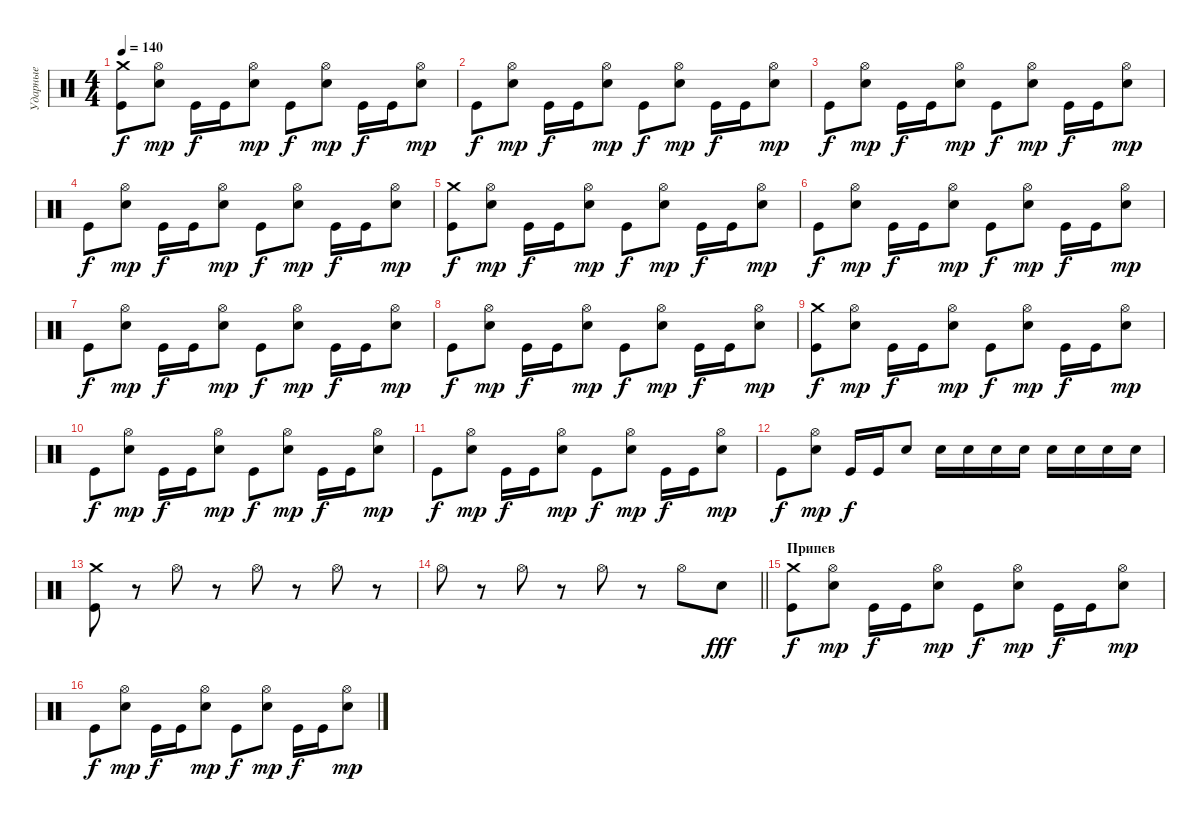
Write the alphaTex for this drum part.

\track ("Ударные" "Ударные") {instrument percussion}
\staff {score}
\articulation defaults
\ts (4 4)
\tempo 140
\clef neutral
\ks c
("Crash medium (hit)" "Kick (hit)").8{dy f} ("Hi-Hat (open)" "Electric Snare (hit)").8{dy mp} "Kick (hit)".16{dy f} "Kick (hit)".16 ("Hi-Hat (open)" "Electric Snare (hit)").8{dy mp} "Kick (hit)".8{dy f} ("Hi-Hat (open)" "Electric Snare (hit)").8{dy mp} "Kick (hit)".16{dy f} "Kick (hit)".16 ("Hi-Hat (open)" "Electric Snare (hit)").8{dy mp} |
"Kick (hit)".8{dy f} ("Hi-Hat (open)" "Electric Snare (hit)").8{dy mp} "Kick (hit)".16{dy f} "Kick (hit)".16 ("Hi-Hat (open)" "Electric Snare (hit)").8{dy mp} "Kick (hit)".8{dy f} ("Hi-Hat (open)" "Electric Snare (hit)").8{dy mp} "Kick (hit)".16{dy f} "Kick (hit)".16 ("Hi-Hat (open)" "Electric Snare (hit)").8{dy mp} |
"Kick (hit)".8{dy f} ("Hi-Hat (open)" "Electric Snare (hit)").8{dy mp} "Kick (hit)".16{dy f} "Kick (hit)".16 ("Hi-Hat (open)" "Electric Snare (hit)").8{dy mp} "Kick (hit)".8{dy f} ("Hi-Hat (open)" "Electric Snare (hit)").8{dy mp} "Kick (hit)".16{dy f} "Kick (hit)".16 ("Hi-Hat (open)" "Electric Snare (hit)").8{dy mp} |
"Kick (hit)".8{dy f} ("Hi-Hat (open)" "Electric Snare (hit)").8{dy mp} "Kick (hit)".16{dy f} "Kick (hit)".16 ("Hi-Hat (open)" "Electric Snare (hit)").8{dy mp} "Kick (hit)".8{dy f} ("Hi-Hat (open)" "Electric Snare (hit)").8{dy mp} "Kick (hit)".16{dy f} "Kick (hit)".16 ("Hi-Hat (open)" "Electric Snare (hit)").8{dy mp} |
("Crash medium (hit)" "Kick (hit)").8{dy f} ("Hi-Hat (open)" "Electric Snare (hit)").8{dy mp} "Kick (hit)".16{dy f} "Kick (hit)".16 ("Hi-Hat (open)" "Electric Snare (hit)").8{dy mp} "Kick (hit)".8{dy f} ("Hi-Hat (open)" "Electric Snare (hit)").8{dy mp} "Kick (hit)".16{dy f} "Kick (hit)".16 ("Hi-Hat (open)" "Electric Snare (hit)").8{dy mp} |
"Kick (hit)".8{dy f} ("Hi-Hat (open)" "Electric Snare (hit)").8{dy mp} "Kick (hit)".16{dy f} "Kick (hit)".16 ("Hi-Hat (open)" "Electric Snare (hit)").8{dy mp} "Kick (hit)".8{dy f} ("Hi-Hat (open)" "Electric Snare (hit)").8{dy mp} "Kick (hit)".16{dy f} "Kick (hit)".16 ("Hi-Hat (open)" "Electric Snare (hit)").8{dy mp} |
"Kick (hit)".8{dy f} ("Hi-Hat (open)" "Electric Snare (hit)").8{dy mp} "Kick (hit)".16{dy f} "Kick (hit)".16 ("Hi-Hat (open)" "Electric Snare (hit)").8{dy mp} "Kick (hit)".8{dy f} ("Hi-Hat (open)" "Electric Snare (hit)").8{dy mp} "Kick (hit)".16{dy f} "Kick (hit)".16 ("Hi-Hat (open)" "Electric Snare (hit)").8{dy mp} |
"Kick (hit)".8{dy f} ("Hi-Hat (open)" "Electric Snare (hit)").8{dy mp} "Kick (hit)".16{dy f} "Kick (hit)".16 ("Hi-Hat (open)" "Electric Snare (hit)").8{dy mp} "Kick (hit)".8{dy f} ("Hi-Hat (open)" "Electric Snare (hit)").8{dy mp} "Kick (hit)".16{dy f} "Kick (hit)".16 ("Hi-Hat (open)" "Electric Snare (hit)").8{dy mp} |
("Crash medium (hit)" "Kick (hit)").8{dy f} ("Hi-Hat (open)" "Electric Snare (hit)").8{dy mp} "Kick (hit)".16{dy f} "Kick (hit)".16 ("Hi-Hat (open)" "Electric Snare (hit)").8{dy mp} "Kick (hit)".8{dy f} ("Hi-Hat (open)" "Electric Snare (hit)").8{dy mp} "Kick (hit)".16{dy f} "Kick (hit)".16 ("Hi-Hat (open)" "Electric Snare (hit)").8{dy mp} |
"Kick (hit)".8{dy f} ("Hi-Hat (open)" "Electric Snare (hit)").8{dy mp} "Kick (hit)".16{dy f} "Kick (hit)".16 ("Hi-Hat (open)" "Electric Snare (hit)").8{dy mp} "Kick (hit)".8{dy f} ("Hi-Hat (open)" "Electric Snare (hit)").8{dy mp} "Kick (hit)".16{dy f} "Kick (hit)".16 ("Hi-Hat (open)" "Electric Snare (hit)").8{dy mp} |
"Kick (hit)".8{dy f} ("Hi-Hat (open)" "Electric Snare (hit)").8{dy mp} "Kick (hit)".16{dy f} "Kick (hit)".16 ("Hi-Hat (open)" "Electric Snare (hit)").8{dy mp} "Kick (hit)".8{dy f} ("Hi-Hat (open)" "Electric Snare (hit)").8{dy mp} "Kick (hit)".16{dy f} "Kick (hit)".16 ("Hi-Hat (open)" "Electric Snare (hit)").8{dy mp} |
"Kick (hit)".8{dy f} ("Hi-Hat (open)" "Electric Snare (hit)").8{dy mp} "Kick (hit)".16{dy f} "Kick (hit)".16 "Electric Snare (hit)".8 "Electric Snare (hit)".16 "Electric Snare (hit)".16 "Electric Snare (hit)".16 "Electric Snare (hit)".16 "Electric Snare (hit)".16 "Electric Snare (hit)".16 "Electric Snare (hit)".16 "Electric Snare (hit)".16 |
("Crash medium (hit)" "Kick (hit)").8 r.8 "Hi-Hat (open)".8 r.8 "Hi-Hat (open)".8 r.8 "Hi-Hat (open)".8 r.8 |
\barLineRight lightlight "Hi-Hat (open)".8
r.8 "Hi-Hat (open)".8 r.8 "Hi-Hat (open)".8 r.8 "Hi-Hat (open)".8 "Electric Snare (hit)".8{dy fff} |
\section ("" "Припев")
("Crash medium (hit)" "Kick (hit)").8{dy f} ("Hi-Hat (open)" "Electric Snare (hit)").8{dy mp} "Kick (hit)".16{dy f} "Kick (hit)".16 ("Hi-Hat (open)" "Electric Snare (hit)").8{dy mp} "Kick (hit)".8{dy f} ("Hi-Hat (open)" "Electric Snare (hit)").8{dy mp} "Kick (hit)".16{dy f} "Kick (hit)".16 ("Hi-Hat (open)" "Electric Snare (hit)").8{dy mp} |
"Kick (hit)".8{dy f} ("Hi-Hat (open)" "Electric Snare (hit)").8{dy mp} "Kick (hit)".16{dy f} "Kick (hit)".16 ("Hi-Hat (open)" "Electric Snare (hit)").8{dy mp} "Kick (hit)".8{dy f} ("Hi-Hat (open)" "Electric Snare (hit)").8{dy mp} "Kick (hit)".16{dy f} "Kick (hit)".16 ("Hi-Hat (open)" "Electric Snare (hit)").8{dy mp}
